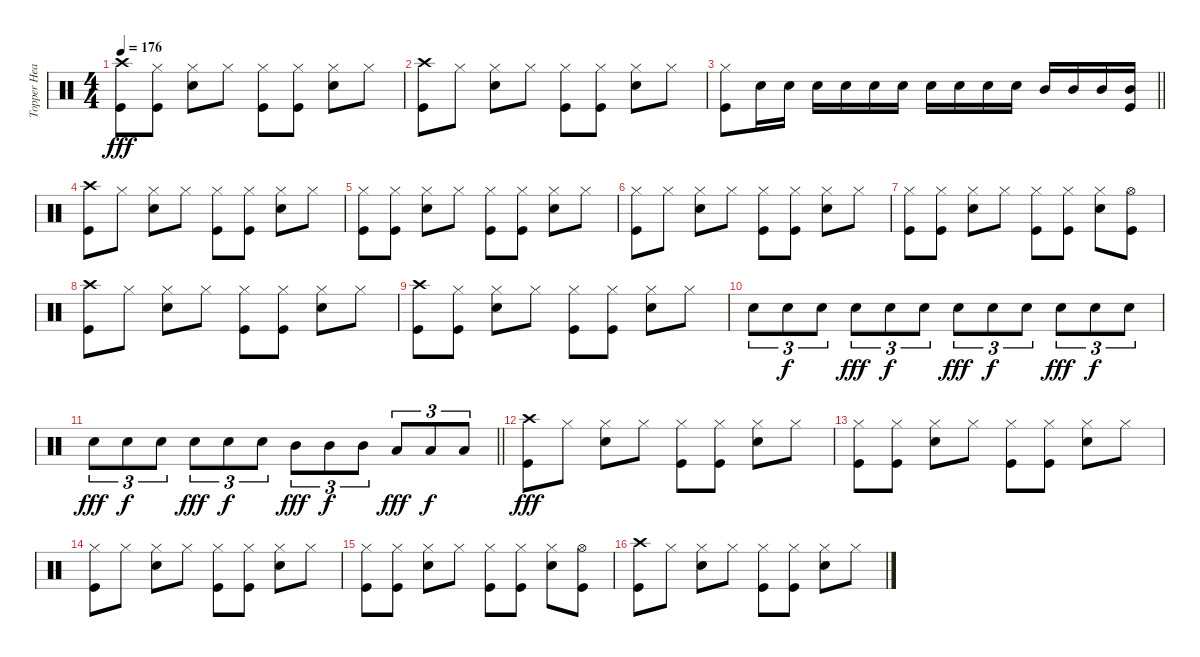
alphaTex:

\track ("Topper Headon - Drums" "Topper Hea") {instrument percussion}
\staff {score}
\articulation defaults
\ts (4 4)
\tempo 176
\clef neutral
\ks c
("Kick (hit)" "Crash high (hit)").8{dy fff} ("Kick (hit)" "Hi-Hat (closed)").8 ("Hi-Hat (closed)" "Snare (hit) 2").8 "Hi-Hat (closed)".8 ("Kick (hit)" "Hi-Hat (closed)").8 ("Kick (hit)" "Hi-Hat (closed)").8 ("Hi-Hat (closed)" "Snare (hit) 2").8 "Hi-Hat (closed)".8 |
("Crash high (hit)" "Kick (hit)").8 "Hi-Hat (closed)".8 ("Hi-Hat (closed)" "Snare (hit) 2").8 "Hi-Hat (closed)".8 ("Hi-Hat (closed)" "Kick (hit)").8 ("Hi-Hat (closed)" "Kick (hit)").8 ("Hi-Hat (closed)" "Snare (hit) 2").8 "Hi-Hat (closed)".8 |
\barLineRight lightlight
("Kick (hit)" "Hi-Hat (closed)").8 "Snare (hit) 2".16 "Snare (hit) 2".16 "Snare (hit) 2".16 "Snare (hit) 2".16 "Snare (hit) 2".16 "Snare (hit) 2".16 "Snare (hit) 2".16 "Snare (hit) 2".16 "Snare (hit) 2".16 "Snare (hit) 2".16 "Mid Tom (hit)".16 "Mid Tom (hit)".16 "Mid Tom (hit)".16 ("Mid Tom (hit)" "Kick (hit)").16 |
("Crash high (hit)" "Kick (hit)").8 "Hi-Hat (closed)".8 ("Hi-Hat (closed)" "Snare (hit) 2").8 "Hi-Hat (closed)".8 ("Hi-Hat (closed)" "Kick (hit)").8 ("Hi-Hat (closed)" "Kick (hit)").8 ("Hi-Hat (closed)" "Snare (hit) 2").8 "Hi-Hat (closed)".8 |
("Kick (hit)" "Hi-Hat (closed)").8 ("Kick (hit)" "Hi-Hat (closed)").8 ("Hi-Hat (closed)" "Snare (hit) 2").8 "Hi-Hat (closed)".8 ("Kick (hit)" "Hi-Hat (closed)").8 ("Kick (hit)" "Hi-Hat (closed)").8 ("Hi-Hat (closed)" "Snare (hit) 2").8 "Hi-Hat (closed)".8 |
("Hi-Hat (closed)" "Kick (hit)").8 "Hi-Hat (closed)".8 ("Hi-Hat (closed)" "Snare (hit) 2").8 "Hi-Hat (closed)".8 ("Hi-Hat (closed)" "Kick (hit)").8 ("Hi-Hat (closed)" "Kick (hit)").8 ("Hi-Hat (closed)" "Snare (hit) 2").8 "Hi-Hat (closed)".8 |
("Kick (hit)" "Hi-Hat (closed)").8 ("Kick (hit)" "Hi-Hat (closed)").8 ("Hi-Hat (closed)" "Snare (hit) 2").8 "Hi-Hat (closed)".8 ("Kick (hit)" "Hi-Hat (closed)").8 ("Kick (hit)" "Hi-Hat (closed)").8 ("Hi-Hat (closed)" "Snare (hit) 2").8 ("Kick (hit)" "Hi-Hat (open)").8 |
("Crash high (hit)" "Kick (hit)").8 "Hi-Hat (closed)".8 ("Hi-Hat (closed)" "Snare (hit) 2").8 "Hi-Hat (closed)".8 ("Hi-Hat (closed)" "Kick (hit)").8 ("Hi-Hat (closed)" "Kick (hit)").8 ("Hi-Hat (closed)" "Snare (hit) 2").8 "Hi-Hat (closed)".8 |
("Kick (hit)" "Crash high (hit)").8 ("Kick (hit)" "Hi-Hat (closed)").8 ("Hi-Hat (closed)" "Snare (hit) 2").8 "Hi-Hat (closed)".8 ("Kick (hit)" "Hi-Hat (closed)").8 ("Kick (hit)" "Hi-Hat (closed)").8 ("Hi-Hat (closed)" "Snare (hit) 2").8 "Hi-Hat (closed)".8 |
"Snare (hit) 2".8{tu (3 2)} "Snare (hit) 2".8{tu (3 2) dy f} "Snare (hit) 2".8{tu (3 2)} "Snare (hit) 2".8{tu (3 2) dy fff} "Snare (hit) 2".8{tu (3 2) dy f} "Snare (hit) 2".8{tu (3 2)} "Snare (hit) 2".8{tu (3 2) dy fff} "Snare (hit) 2".8{tu (3 2) dy f} "Snare (hit) 2".8{tu (3 2)} "Snare (hit) 2".8{tu (3 2) dy fff} "Snare (hit) 2".8{tu (3 2) dy f} "Snare (hit) 2".8{tu (3 2)} |
\barLineRight lightlight "Snare (hit) 2".8{tu (3 2) dy fff} "Snare (hit) 2".8{tu (3 2) dy f} "Snare (hit) 2".8{tu (3 2)} "Snare (hit) 2".8{tu (3 2) dy fff} "Snare (hit) 2".8{tu (3 2) dy f} "Snare (hit) 2".8{tu (3 2)} "Mid Tom (hit)".8{tu (3 2) dy fff} "Mid Tom (hit)".8{tu (3 2) dy f} "Mid Tom (hit)".8{tu (3 2)} "Low Tom (hit)".8{tu (3 2) dy fff} "Low Tom (hit)".8{tu (3 2) dy f} "Low Tom (hit)".8{tu (3 2)}
|
("Crash high (hit)" "Kick (hit)").8{dy fff} "Hi-Hat (closed)".8 ("Hi-Hat (closed)" "Snare (hit) 2").8 "Hi-Hat (closed)".8 ("Hi-Hat (closed)" "Kick (hit)").8 ("Hi-Hat (closed)" "Kick (hit)").8 ("Hi-Hat (closed)" "Snare (hit) 2").8 "Hi-Hat (closed)".8 |
("Kick (hit)" "Hi-Hat (closed)").8 ("Kick (hit)" "Hi-Hat (closed)").8 ("Hi-Hat (closed)" "Snare (hit) 2").8 "Hi-Hat (closed)".8 ("Kick (hit)" "Hi-Hat (closed)").8 ("Kick (hit)" "Hi-Hat (closed)").8 ("Hi-Hat (closed)" "Snare (hit) 2").8 "Hi-Hat (closed)".8 |
("Hi-Hat (closed)" "Kick (hit)").8 "Hi-Hat (closed)".8 ("Hi-Hat (closed)" "Snare (hit) 2").8 "Hi-Hat (closed)".8 ("Hi-Hat (closed)" "Kick (hit)").8 ("Hi-Hat (closed)" "Kick (hit)").8 ("Hi-Hat (closed)" "Snare (hit) 2").8 "Hi-Hat (closed)".8 |
("Kick (hit)" "Hi-Hat (closed)").8 ("Kick (hit)" "Hi-Hat (closed)").8 ("Hi-Hat (closed)" "Snare (hit) 2").8 "Hi-Hat (closed)".8 ("Kick (hit)" "Hi-Hat (closed)").8 ("Kick (hit)" "Hi-Hat (closed)").8 ("Hi-Hat (closed)" "Snare (hit) 2").8 ("Kick (hit)" "Hi-Hat (open)").8 |
("Crash high (hit)" "Kick (hit)").8 "Hi-Hat (closed)".8 ("Hi-Hat (closed)" "Snare (hit) 2").8 "Hi-Hat (closed)".8 ("Hi-Hat (closed)" "Kick (hit)").8 ("Hi-Hat (closed)" "Kick (hit)").8 ("Hi-Hat (closed)" "Snare (hit) 2").8 "Hi-Hat (closed)".8
